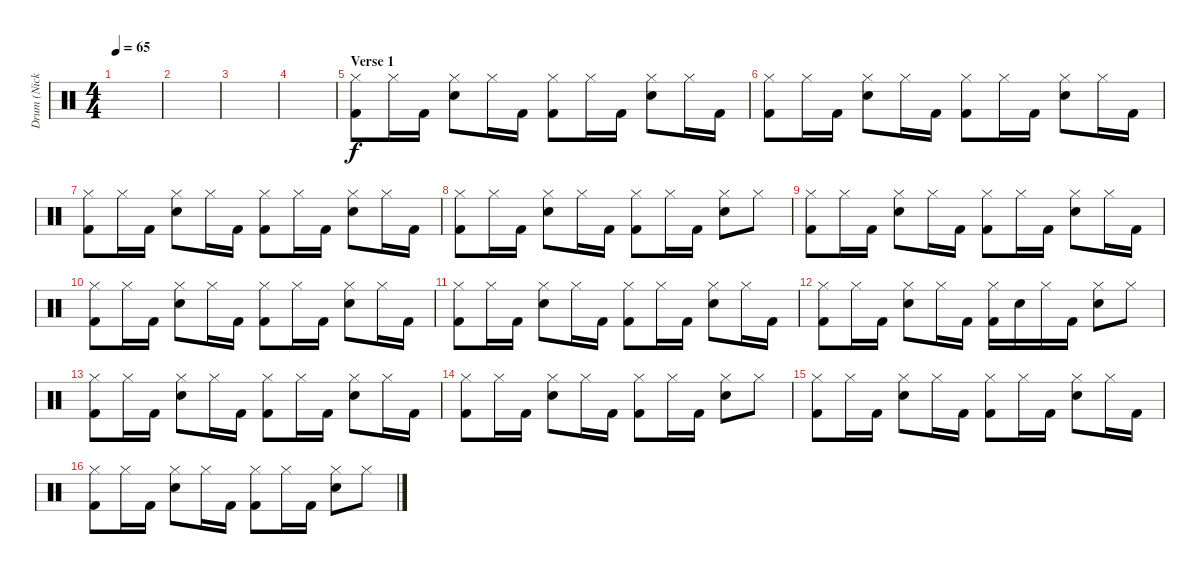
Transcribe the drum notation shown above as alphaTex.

\track ("Drum (Nick Oshiro)" "Drum (Nick") {instrument percussion}
\staff {score}
\articulation defaults
\ts (4 4)
\tempo 65
\clef neutral
\ks c
|
|
|
|
\section ("" "Verse 1")
("Hi-Hat (closed)" "Kick (hit) 2").8 "Hi-Hat (closed)".16 "Kick (hit) 2".16 ("Hi-Hat (closed)" "Electric Snare (hit)").8 "Hi-Hat (closed)".16 "Kick (hit) 2".16 ("Hi-Hat (closed)" "Kick (hit) 2").8 "Hi-Hat (closed)".16 "Kick (hit) 2".16 ("Hi-Hat (closed)" "Electric Snare (hit)").8 "Hi-Hat (closed)".16 "Kick (hit) 2".16 |
("Hi-Hat (closed)" "Kick (hit) 2").8 "Hi-Hat (closed)".16 "Kick (hit) 2".16 ("Hi-Hat (closed)" "Electric Snare (hit)").8 "Hi-Hat (closed)".16 "Kick (hit) 2".16 ("Hi-Hat (closed)" "Kick (hit) 2").8 "Hi-Hat (closed)".16 "Kick (hit) 2".16 ("Hi-Hat (closed)" "Electric Snare (hit)").8 "Hi-Hat (closed)".16 "Kick (hit) 2".16 |
("Hi-Hat (closed)" "Kick (hit) 2").8 "Hi-Hat (closed)".16 "Kick (hit) 2".16 ("Hi-Hat (closed)" "Electric Snare (hit)").8 "Hi-Hat (closed)".16 "Kick (hit) 2".16 ("Hi-Hat (closed)" "Kick (hit) 2").8 "Hi-Hat (closed)".16 "Kick (hit) 2".16 ("Hi-Hat (closed)" "Electric Snare (hit)").8 "Hi-Hat (closed)".16 "Kick (hit) 2".16 |
("Hi-Hat (closed)" "Kick (hit) 2").8 "Hi-Hat (closed)".16 "Kick (hit) 2".16 ("Hi-Hat (closed)" "Electric Snare (hit)").8 "Hi-Hat (closed)".16 "Kick (hit) 2".16 ("Hi-Hat (closed)" "Kick (hit) 2").8 "Hi-Hat (closed)".16 "Kick (hit) 2".16 ("Hi-Hat (closed)" "Electric Snare (hit)").8 "Hi-Hat (closed)".8 |
("Hi-Hat (closed)" "Kick (hit) 2").8 "Hi-Hat (closed)".16 "Kick (hit) 2".16 ("Hi-Hat (closed)" "Electric Snare (hit)").8 "Hi-Hat (closed)".16 "Kick (hit) 2".16 ("Hi-Hat (closed)" "Kick (hit) 2").8 "Hi-Hat (closed)".16 "Kick (hit) 2".16 ("Hi-Hat (closed)" "Electric Snare (hit)").8 "Hi-Hat (closed)".16 "Kick (hit) 2".16 |
("Hi-Hat (closed)" "Kick (hit) 2").8 "Hi-Hat (closed)".16 "Kick (hit) 2".16 ("Hi-Hat (closed)" "Electric Snare (hit)").8 "Hi-Hat (closed)".16 "Kick (hit) 2".16 ("Hi-Hat (closed)" "Kick (hit) 2").8 "Hi-Hat (closed)".16 "Kick (hit) 2".16 ("Hi-Hat (closed)" "Electric Snare (hit)").8 "Hi-Hat (closed)".16 "Kick (hit) 2".16 |
("Hi-Hat (closed)" "Kick (hit) 2").8 "Hi-Hat (closed)".16 "Kick (hit) 2".16 ("Hi-Hat (closed)" "Electric Snare (hit)").8 "Hi-Hat (closed)".16 "Kick (hit) 2".16 ("Hi-Hat (closed)" "Kick (hit) 2").8 "Hi-Hat (closed)".16 "Kick (hit) 2".16 ("Hi-Hat (closed)" "Electric Snare (hit)").8 "Hi-Hat (closed)".16 "Kick (hit) 2".16 |
("Hi-Hat (closed)" "Kick (hit) 2").8 "Hi-Hat (closed)".16 "Kick (hit) 2".16 ("Hi-Hat (closed)" "Electric Snare (hit)").8 "Hi-Hat (closed)".16 "Kick (hit) 2".16 ("Hi-Hat (closed)" "Kick (hit) 2").16 "Electric Snare (hit)".16 "Hi-Hat (closed)".16 "Kick (hit) 2".16 ("Hi-Hat (closed)" "Electric Snare (hit)").8 "Hi-Hat (closed)".8 |
("Hi-Hat (closed)" "Kick (hit) 2").8 "Hi-Hat (closed)".16 "Kick (hit) 2".16 ("Hi-Hat (closed)" "Electric Snare (hit)").8 "Hi-Hat (closed)".16 "Kick (hit) 2".16 ("Hi-Hat (closed)" "Kick (hit) 2").8 "Hi-Hat (closed)".16 "Kick (hit) 2".16 ("Hi-Hat (closed)" "Electric Snare (hit)").8 "Hi-Hat (closed)".16 "Kick (hit) 2".16 |
("Hi-Hat (closed)" "Kick (hit) 2").8 "Hi-Hat (closed)".16 "Kick (hit) 2".16 ("Hi-Hat (closed)" "Electric Snare (hit)").8 "Hi-Hat (closed)".16 "Kick (hit) 2".16 ("Hi-Hat (closed)" "Kick (hit) 2").8 "Hi-Hat (closed)".16 "Kick (hit) 2".16 ("Hi-Hat (closed)" "Electric Snare (hit)").8 "Hi-Hat (closed)".8 |
("Hi-Hat (closed)" "Kick (hit) 2").8 "Hi-Hat (closed)".16 "Kick (hit) 2".16 ("Hi-Hat (closed)" "Electric Snare (hit)").8 "Hi-Hat (closed)".16 "Kick (hit) 2".16 ("Hi-Hat (closed)" "Kick (hit) 2").8 "Hi-Hat (closed)".16 "Kick (hit) 2".16 ("Hi-Hat (closed)" "Electric Snare (hit)").8 "Hi-Hat (closed)".16 "Kick (hit) 2".16 |
("Hi-Hat (closed)" "Kick (hit) 2").8 "Hi-Hat (closed)".16 "Kick (hit) 2".16 ("Hi-Hat (closed)" "Electric Snare (hit)").8 "Hi-Hat (closed)".16 "Kick (hit) 2".16 ("Hi-Hat (closed)" "Kick (hit) 2").8 "Hi-Hat (closed)".16 "Kick (hit) 2".16 ("Hi-Hat (closed)" "Electric Snare (hit)").8 "Hi-Hat (closed)".8
